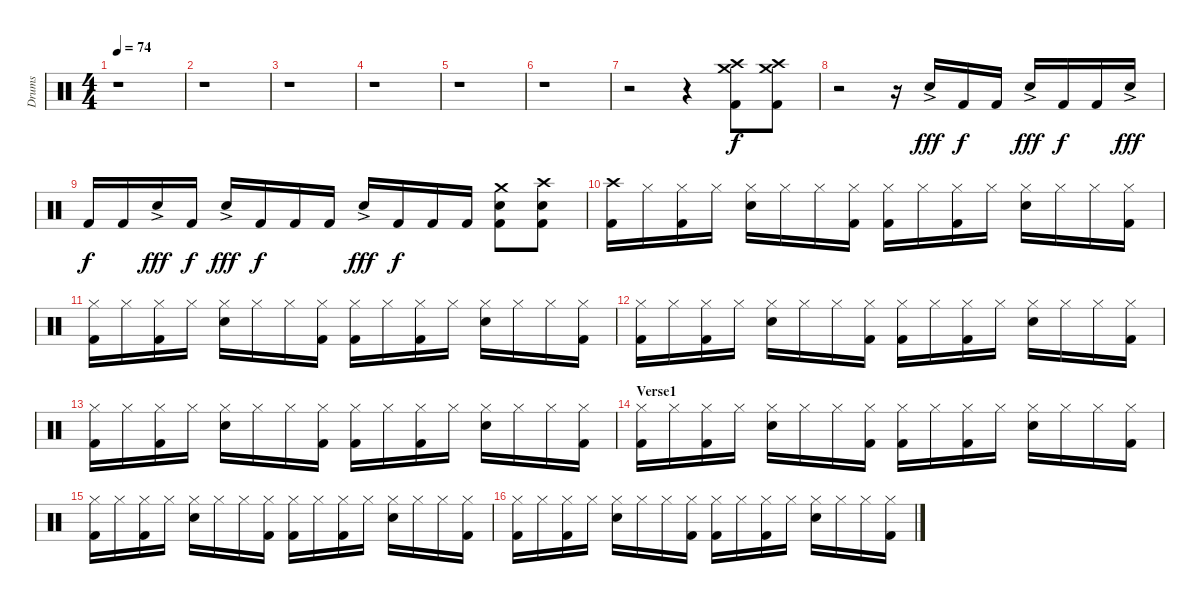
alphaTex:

\track ("Drums" "Drums") {instrument percussion}
\staff {score}
\articulation defaults
\ts (4 4)
\tempo 74
\clef neutral
\ks c
r.1{dy f} |
\ks aminor
r.1 |
r.1 |
r.1 |
r.1 |
r.1 |
r.2 r.4 ("Crash high (hit)" "Crash medium (hit)" "Kick (hit) 2").8 ("Crash high (hit)" "Crash medium (hit)" "Kick (hit) 2").8 |
r.2 r.16 "Snare (hit) 2"{ac}.16{dy fff} "Kick (hit) 2".16{dy f} "Kick (hit) 2".16 "Snare (hit) 2"{ac}.16{dy fff} "Kick (hit) 2".16{dy f} "Kick (hit) 2".16 "Snare (hit) 2"{ac}.16{dy fff} |
"Kick (hit) 2".16{dy f} "Kick (hit) 2".16 "Snare (hit) 2"{ac}.16{dy fff} "Kick (hit) 2".16{dy f} "Snare (hit) 2"{ac}.16{dy fff} "Kick (hit) 2".16{dy f} "Kick (hit) 2".16 "Kick (hit) 2".16 "Snare (hit) 2"{ac}.16{dy fff} "Kick (hit) 2".16{dy f} "Kick (hit) 2".16 "Kick (hit) 2".16 ("Crash medium (hit)" "Snare (hit) 2" "Kick (hit) 2").8 ("Crash high (hit)" "Snare (hit) 2" "Kick (hit) 2").8 |
("Crash high (hit)" "Kick (hit) 2").16 "Hi-Hat (closed)".16 ("Hi-Hat (closed)" "Kick (hit) 2").16 "Hi-Hat (closed)".16 ("Hi-Hat (closed)" "Snare (hit) 2").16 "Hi-Hat (closed)".16 "Hi-Hat (closed)".16 ("Hi-Hat (closed)" "Kick (hit) 2").16 ("Hi-Hat (closed)" "Kick (hit) 2").16 "Hi-Hat (closed)".16 ("Hi-Hat (closed)" "Kick (hit) 2").16 "Hi-Hat (closed)".16 ("Hi-Hat (closed)" "Snare (hit) 2").16 "Hi-Hat (closed)".16 "Hi-Hat (closed)".16 ("Hi-Hat (closed)" "Kick (hit) 2").16 |
("Hi-Hat (closed)" "Kick (hit) 2").16 "Hi-Hat (closed)".16 ("Hi-Hat (closed)" "Kick (hit) 2").16 "Hi-Hat (closed)".16 ("Hi-Hat (closed)" "Snare (hit) 2").16 "Hi-Hat (closed)".16 "Hi-Hat (closed)".16 ("Hi-Hat (closed)" "Kick (hit) 2").16 ("Hi-Hat (closed)" "Kick (hit) 2").16 "Hi-Hat (closed)".16 ("Hi-Hat (closed)" "Kick (hit) 2").16 "Hi-Hat (closed)".16 ("Hi-Hat (closed)" "Snare (hit) 2").16 "Hi-Hat (closed)".16 "Hi-Hat (closed)".16 ("Hi-Hat (closed)" "Kick (hit) 2").16 |
("Hi-Hat (closed)" "Kick (hit) 2").16 "Hi-Hat (closed)".16 ("Hi-Hat (closed)" "Kick (hit) 2").16 "Hi-Hat (closed)".16 ("Hi-Hat (closed)" "Snare (hit) 2").16 "Hi-Hat (closed)".16 "Hi-Hat (closed)".16 ("Hi-Hat (closed)" "Kick (hit) 2").16 ("Hi-Hat (closed)" "Kick (hit) 2").16 "Hi-Hat (closed)".16 ("Hi-Hat (closed)" "Kick (hit) 2").16 "Hi-Hat (closed)".16 ("Hi-Hat (closed)" "Snare (hit) 2").16 "Hi-Hat (closed)".16 "Hi-Hat (closed)".16 ("Hi-Hat (closed)" "Kick (hit) 2").16 |
("Hi-Hat (closed)" "Kick (hit) 2").16 "Hi-Hat (closed)".16 ("Hi-Hat (closed)" "Kick (hit) 2").16 "Hi-Hat (closed)".16 ("Hi-Hat (closed)" "Snare (hit) 2").16 "Hi-Hat (closed)".16 "Hi-Hat (closed)".16 ("Hi-Hat (closed)" "Kick (hit) 2").16 ("Hi-Hat (closed)" "Kick (hit) 2").16 "Hi-Hat (closed)".16 ("Hi-Hat (closed)" "Kick (hit) 2").16 "Hi-Hat (closed)".16 ("Hi-Hat (closed)" "Snare (hit) 2").16 "Hi-Hat (closed)".16 "Hi-Hat (closed)".16 ("Hi-Hat (closed)" "Kick (hit) 2").16 |
\section ("" "Verse1")
("Hi-Hat (closed)" "Kick (hit) 2").16 "Hi-Hat (closed)".16 ("Hi-Hat (closed)" "Kick (hit) 2").16 "Hi-Hat (closed)".16 ("Hi-Hat (closed)" "Snare (hit) 2").16 "Hi-Hat (closed)".16 "Hi-Hat (closed)".16 ("Hi-Hat (closed)" "Kick (hit) 2").16 ("Hi-Hat (closed)" "Kick (hit) 2").16 "Hi-Hat (closed)".16 ("Hi-Hat (closed)" "Kick (hit) 2").16 "Hi-Hat (closed)".16 ("Hi-Hat (closed)" "Snare (hit) 2").16 "Hi-Hat (closed)".16 "Hi-Hat (closed)".16 ("Hi-Hat (closed)" "Kick (hit) 2").16 |
("Hi-Hat (closed)" "Kick (hit) 2").16 "Hi-Hat (closed)".16 ("Hi-Hat (closed)" "Kick (hit) 2").16 "Hi-Hat (closed)".16 ("Hi-Hat (closed)" "Snare (hit) 2").16 "Hi-Hat (closed)".16 "Hi-Hat (closed)".16 ("Hi-Hat (closed)" "Kick (hit) 2").16 ("Hi-Hat (closed)" "Kick (hit) 2").16 "Hi-Hat (closed)".16 ("Hi-Hat (closed)" "Kick (hit) 2").16 "Hi-Hat (closed)".16 ("Hi-Hat (closed)" "Snare (hit) 2").16 "Hi-Hat (closed)".16 "Hi-Hat (closed)".16 ("Hi-Hat (closed)" "Kick (hit) 2").16 |
("Hi-Hat (closed)" "Kick (hit) 2").16 "Hi-Hat (closed)".16 ("Hi-Hat (closed)" "Kick (hit) 2").16 "Hi-Hat (closed)".16 ("Hi-Hat (closed)" "Snare (hit) 2").16 "Hi-Hat (closed)".16 "Hi-Hat (closed)".16 ("Hi-Hat (closed)" "Kick (hit) 2").16 ("Hi-Hat (closed)" "Kick (hit) 2").16 "Hi-Hat (closed)".16 ("Hi-Hat (closed)" "Kick (hit) 2").16 "Hi-Hat (closed)".16 ("Hi-Hat (closed)" "Snare (hit) 2").16 "Hi-Hat (closed)".16 "Hi-Hat (closed)".16 ("Hi-Hat (closed)" "Kick (hit) 2").16
